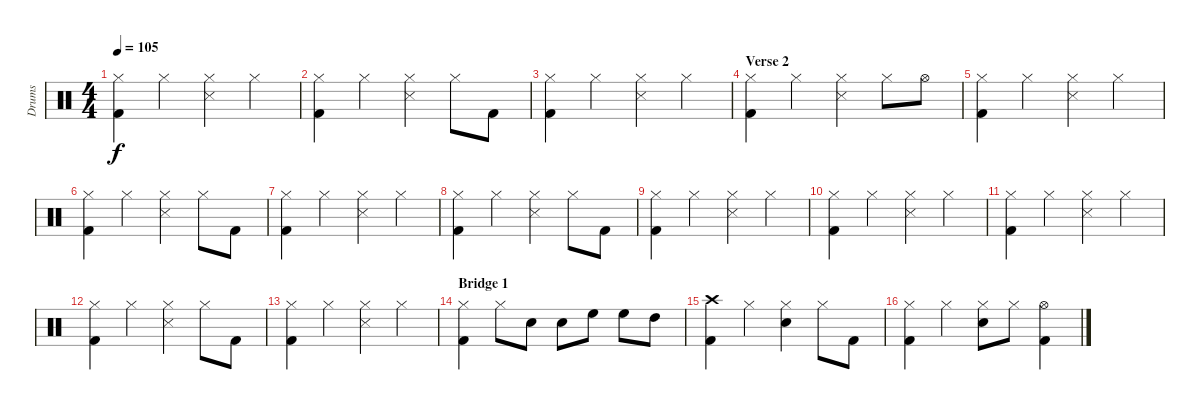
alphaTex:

\track ("Drums" "Drums") {instrument percussion}
\staff {score}
\articulation defaults
\ts (4 4)
\tempo 105
\clef neutral
\ks c
("Hi-Hat (closed)" "Kick (hit) 2").4{dy f} "Hi-Hat (closed)".4 ("Hi-Hat (closed)" "Snare (side stick) 3").4 "Hi-Hat (closed)".4 |
("Hi-Hat (closed)" "Kick (hit) 2").4 "Hi-Hat (closed)".4 ("Hi-Hat (closed)" "Snare (side stick) 3").4 "Hi-Hat (closed)".8 "Kick (hit) 2".8 |
("Hi-Hat (closed)" "Kick (hit) 2").4 "Hi-Hat (closed)".4 ("Hi-Hat (closed)" "Snare (side stick) 3").4 "Hi-Hat (closed)".4 |
\section ("" "Verse 2")
("Hi-Hat (closed)" "Kick (hit) 2").4 "Hi-Hat (closed)".4 ("Hi-Hat (closed)" "Snare (side stick) 3").4 "Hi-Hat (closed)".8 "Hi-Hat (open)".8 |
("Hi-Hat (closed)" "Kick (hit) 2").4 "Hi-Hat (closed)".4 ("Hi-Hat (closed)" "Snare (side stick) 3").4 "Hi-Hat (closed)".4 |
("Hi-Hat (closed)" "Kick (hit) 2").4 "Hi-Hat (closed)".4 ("Hi-Hat (closed)" "Snare (side stick) 3").4 "Hi-Hat (closed)".8 "Kick (hit) 2".8 |
("Hi-Hat (closed)" "Kick (hit) 2").4 "Hi-Hat (closed)".4 ("Hi-Hat (closed)" "Snare (side stick) 3").4 "Hi-Hat (closed)".4 |
("Hi-Hat (closed)" "Kick (hit) 2").4 "Hi-Hat (closed)".4 ("Hi-Hat (closed)" "Snare (side stick) 3").4 "Hi-Hat (closed)".8 "Kick (hit) 2".8 |
("Hi-Hat (closed)" "Kick (hit) 2").4 "Hi-Hat (closed)".4 ("Hi-Hat (closed)" "Snare (side stick) 3").4 "Hi-Hat (closed)".4 |
("Hi-Hat (closed)" "Kick (hit) 2").4 "Hi-Hat (closed)".4 ("Hi-Hat (closed)" "Snare (side stick) 3").4 "Hi-Hat (closed)".4 |
("Hi-Hat (closed)" "Kick (hit) 2").4 "Hi-Hat (closed)".4 ("Hi-Hat (closed)" "Snare (side stick) 3").4 "Hi-Hat (closed)".4 |
("Hi-Hat (closed)" "Kick (hit) 2").4 "Hi-Hat (closed)".4 ("Hi-Hat (closed)" "Snare (side stick) 3").4 "Hi-Hat (closed)".8 "Kick (hit) 2".8 |
("Hi-Hat (closed)" "Kick (hit) 2").4 "Hi-Hat (closed)".4 ("Hi-Hat (closed)" "Snare (side stick) 3").4 "Hi-Hat (closed)".4 |
\section ("" "Bridge 1")
("Hi-Hat (closed)" "Kick (hit) 2").4 "Hi-Hat (closed)".8 "Snare (hit) 2".8 "Snare (hit) 2".8 "High Floor Tom (hit)".8 "High Floor Tom (hit)".8 "High Tom (hit)".8 |
("Crash high (hit)" "Kick (hit) 2").4 "Hi-Hat (closed)".4 ("Hi-Hat (closed)" "Snare (hit) 2").4 "Hi-Hat (closed)".8 "Kick (hit) 2".8 |
("Hi-Hat (closed)" "Kick (hit) 2").4 "Hi-Hat (closed)".4 ("Hi-Hat (closed)" "Snare (hit) 2").8 "Hi-Hat (closed)".8 ("Hi-Hat (open)" "Kick (hit) 2").4
